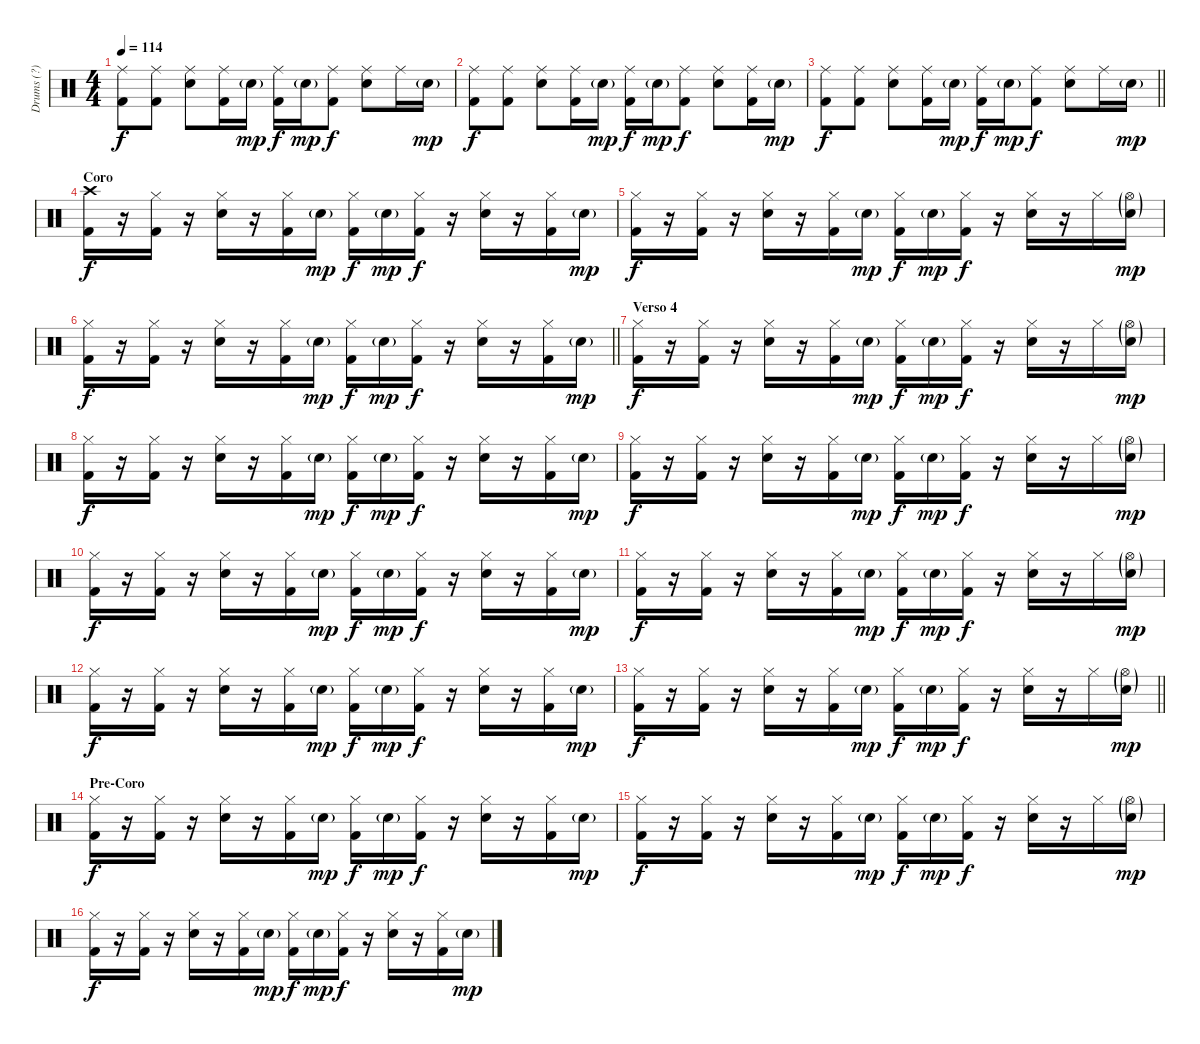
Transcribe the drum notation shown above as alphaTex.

\track ("Drums (?)" "Drums (?)") {instrument percussion}
\staff {score}
\articulation defaults
\ts (4 4)
\tempo 114
\clef neutral
\ks c
("Ride (middle)" "Kick (hit) 2").8{dy f} ("Ride (middle)" "Kick (hit) 2").8 ("Ride (middle)" "Snare (hit) 2").8 ("Ride (middle)" "Kick (hit) 2").16 "Snare (hit) 2"{g}.16{dy mp} ("Ride (middle)" "Kick (hit) 2").16{dy f} "Snare (hit) 2"{g}.16{dy mp} ("Ride (middle)" "Kick (hit) 2").8{dy f} ("Ride (middle)" "Snare (hit) 2").8 "Ride (middle)".16 "Snare (hit) 2"{g}.16{dy mp} |
("Ride (middle)" "Kick (hit) 2").8{dy f} ("Ride (middle)" "Kick (hit) 2").8 ("Ride (middle)" "Snare (hit) 2").8 ("Ride (middle)" "Kick (hit) 2").16 "Snare (hit) 2"{g}.16{dy mp} ("Ride (middle)" "Kick (hit) 2").16{dy f} "Snare (hit) 2"{g}.16{dy mp} ("Ride (middle)" "Kick (hit) 2").8{dy f} ("Ride (middle)" "Snare (hit) 2").8 ("Ride (middle)" "Kick (hit) 2").16 "Snare (hit) 2"{g}.16{dy mp} |
\barLineRight lightlight
("Ride (middle)" "Kick (hit) 2").8{dy f} ("Ride (middle)" "Kick (hit) 2").8 ("Ride (middle)" "Snare (hit) 2").8 ("Ride (middle)" "Kick (hit) 2").16 "Snare (hit) 2"{g}.16{dy mp} ("Ride (middle)" "Kick (hit) 2").16{dy f} "Snare (hit) 2"{g}.16{dy mp} ("Ride (middle)" "Kick (hit) 2").8{dy f} ("Ride (middle)" "Snare (hit) 2").8 "Ride (middle)".16 "Snare (hit) 2"{g}.16{dy mp} |
\section ("" "Coro")
("Crash high (hit)" "Kick (hit) 2").16{dy f} r.16 ("Hi-Hat (closed)" "Kick (hit) 2").16 r.16 ("Hi-Hat (closed)" "Snare (hit) 2").16 r.16 ("Hi-Hat (closed)" "Kick (hit) 2").16 "Snare (hit) 2"{g}.16{dy mp} ("Hi-Hat (closed)" "Kick (hit) 2").16{dy f} "Snare (hit) 2"{g}.16{dy mp} ("Hi-Hat (closed)" "Kick (hit) 2").16{dy f} r.16 ("Hi-Hat (closed)" "Snare (hit) 2").16 r.16 ("Hi-Hat (closed)" "Kick (hit) 2").16 "Snare (hit) 2"{g}.16{dy mp} |
("Hi-Hat (closed)" "Kick (hit) 2").16{dy f} r.16 ("Hi-Hat (closed)" "Kick (hit) 2").16 r.16 ("Hi-Hat (closed)" "Snare (hit) 2").16 r.16 ("Hi-Hat (closed)" "Kick (hit) 2").16 "Snare (hit) 2"{g}.16{dy mp} ("Hi-Hat (closed)" "Kick (hit) 2").16{dy f} "Snare (hit) 2"{g}.16{dy mp} ("Hi-Hat (closed)" "Kick (hit) 2").16{dy f} r.16 ("Hi-Hat (closed)" "Snare (hit) 2").16 r.16 "Hi-Hat (closed)".16 ("Hi-Hat (open)"{g} "Snare (hit) 2"{g}).16{dy mp} |
\barLineRight lightlight
("Hi-Hat (closed)" "Kick (hit) 2").16{dy f} r.16 ("Hi-Hat (closed)" "Kick (hit) 2").16 r.16 ("Hi-Hat (closed)" "Snare (hit) 2").16 r.16 ("Hi-Hat (closed)" "Kick (hit) 2").16 "Snare (hit) 2"{g}.16{dy mp} ("Hi-Hat (closed)" "Kick (hit) 2").16{dy f} "Snare (hit) 2"{g}.16{dy mp} ("Hi-Hat (closed)" "Kick (hit) 2").16{dy f} r.16 ("Hi-Hat (closed)" "Snare (hit) 2").16 r.16 ("Hi-Hat (closed)" "Kick (hit) 2").16 "Snare (hit) 2"{g}.16{dy mp} |
\section ("" "Verso 4")
("Hi-Hat (closed)" "Kick (hit) 2").16{dy f} r.16 ("Hi-Hat (closed)" "Kick (hit) 2").16 r.16 ("Hi-Hat (closed)" "Snare (hit) 2").16 r.16 ("Hi-Hat (closed)" "Kick (hit) 2").16 "Snare (hit) 2"{g}.16{dy mp} ("Hi-Hat (closed)" "Kick (hit) 2").16{dy f} "Snare (hit) 2"{g}.16{dy mp} ("Hi-Hat (closed)" "Kick (hit) 2").16{dy f} r.16 ("Hi-Hat (closed)" "Snare (hit) 2").16 r.16 "Hi-Hat (closed)".16 ("Hi-Hat (open)"{g} "Snare (hit) 2"{g}).16{dy mp} |
("Hi-Hat (closed)" "Kick (hit) 2").16{dy f} r.16 ("Hi-Hat (closed)" "Kick (hit) 2").16 r.16 ("Hi-Hat (closed)" "Snare (hit) 2").16 r.16 ("Hi-Hat (closed)" "Kick (hit) 2").16 "Snare (hit) 2"{g}.16{dy mp} ("Hi-Hat (closed)" "Kick (hit) 2").16{dy f} "Snare (hit) 2"{g}.16{dy mp} ("Hi-Hat (closed)" "Kick (hit) 2").16{dy f} r.16 ("Hi-Hat (closed)" "Snare (hit) 2").16 r.16 ("Hi-Hat (closed)" "Kick (hit) 2").16 "Snare (hit) 2"{g}.16{dy mp} |
("Hi-Hat (closed)" "Kick (hit) 2").16{dy f} r.16 ("Hi-Hat (closed)" "Kick (hit) 2").16 r.16 ("Hi-Hat (closed)" "Snare (hit) 2").16 r.16 ("Hi-Hat (closed)" "Kick (hit) 2").16 "Snare (hit) 2"{g}.16{dy mp} ("Hi-Hat (closed)" "Kick (hit) 2").16{dy f} "Snare (hit) 2"{g}.16{dy mp} ("Hi-Hat (closed)" "Kick (hit) 2").16{dy f} r.16 ("Hi-Hat (closed)" "Snare (hit) 2").16 r.16 "Hi-Hat (closed)".16 ("Hi-Hat (open)"{g} "Snare (hit) 2"{g}).16{dy mp} |
("Hi-Hat (closed)" "Kick (hit) 2").16{dy f} r.16 ("Hi-Hat (closed)" "Kick (hit) 2").16 r.16 ("Hi-Hat (closed)" "Snare (hit) 2").16 r.16 ("Hi-Hat (closed)" "Kick (hit) 2").16 "Snare (hit) 2"{g}.16{dy mp} ("Hi-Hat (closed)" "Kick (hit) 2").16{dy f} "Snare (hit) 2"{g}.16{dy mp} ("Hi-Hat (closed)" "Kick (hit) 2").16{dy f} r.16 ("Hi-Hat (closed)" "Snare (hit) 2").16 r.16 ("Hi-Hat (closed)" "Kick (hit) 2").16 "Snare (hit) 2"{g}.16{dy mp} |
("Hi-Hat (closed)" "Kick (hit) 2").16{dy f} r.16 ("Hi-Hat (closed)" "Kick (hit) 2").16 r.16 ("Hi-Hat (closed)" "Snare (hit) 2").16 r.16 ("Hi-Hat (closed)" "Kick (hit) 2").16 "Snare (hit) 2"{g}.16{dy mp} ("Hi-Hat (closed)" "Kick (hit) 2").16{dy f} "Snare (hit) 2"{g}.16{dy mp} ("Hi-Hat (closed)" "Kick (hit) 2").16{dy f} r.16 ("Hi-Hat (closed)" "Snare (hit) 2").16 r.16 "Hi-Hat (closed)".16 ("Hi-Hat (open)"{g} "Snare (hit) 2"{g}).16{dy mp} |
("Hi-Hat (closed)" "Kick (hit) 2").16{dy f} r.16 ("Hi-Hat (closed)" "Kick (hit) 2").16 r.16 ("Hi-Hat (closed)" "Snare (hit) 2").16 r.16 ("Hi-Hat (closed)" "Kick (hit) 2").16 "Snare (hit) 2"{g}.16{dy mp} ("Hi-Hat (closed)" "Kick (hit) 2").16{dy f} "Snare (hit) 2"{g}.16{dy mp} ("Hi-Hat (closed)" "Kick (hit) 2").16{dy f} r.16 ("Hi-Hat (closed)" "Snare (hit) 2").16 r.16 ("Hi-Hat (closed)" "Kick (hit) 2").16 "Snare (hit) 2"{g}.16{dy mp} |
\barLineRight lightlight
("Hi-Hat (closed)" "Kick (hit) 2").16{dy f} r.16 ("Hi-Hat (closed)" "Kick (hit) 2").16 r.16 ("Hi-Hat (closed)" "Snare (hit) 2").16 r.16 ("Hi-Hat (closed)" "Kick (hit) 2").16 "Snare (hit) 2"{g}.16{dy mp} ("Hi-Hat (closed)" "Kick (hit) 2").16{dy f} "Snare (hit) 2"{g}.16{dy mp} ("Hi-Hat (closed)" "Kick (hit) 2").16{dy f} r.16 ("Hi-Hat (closed)" "Snare (hit) 2").16 r.16 "Hi-Hat (closed)".16 ("Hi-Hat (open)"{g} "Snare (hit) 2"{g}).16{dy mp} |
\section ("" "Pre-Coro")
("Hi-Hat (closed)" "Kick (hit) 2").16{dy f} r.16 ("Hi-Hat (closed)" "Kick (hit) 2").16 r.16 ("Hi-Hat (closed)" "Snare (hit) 2").16 r.16 ("Hi-Hat (closed)" "Kick (hit) 2").16 "Snare (hit) 2"{g}.16{dy mp} ("Hi-Hat (closed)" "Kick (hit) 2").16{dy f} "Snare (hit) 2"{g}.16{dy mp} ("Hi-Hat (closed)" "Kick (hit) 2").16{dy f} r.16 ("Hi-Hat (closed)" "Snare (hit) 2").16 r.16 ("Hi-Hat (closed)" "Kick (hit) 2").16 "Snare (hit) 2"{g}.16{dy mp} |
("Hi-Hat (closed)" "Kick (hit) 2").16{dy f} r.16 ("Hi-Hat (closed)" "Kick (hit) 2").16 r.16 ("Hi-Hat (closed)" "Snare (hit) 2").16 r.16 ("Hi-Hat (closed)" "Kick (hit) 2").16 "Snare (hit) 2"{g}.16{dy mp} ("Hi-Hat (closed)" "Kick (hit) 2").16{dy f} "Snare (hit) 2"{g}.16{dy mp} ("Hi-Hat (closed)" "Kick (hit) 2").16{dy f} r.16 ("Hi-Hat (closed)" "Snare (hit) 2").16 r.16 "Hi-Hat (closed)".16 ("Hi-Hat (open)"{g} "Snare (hit) 2"{g}).16{dy mp} |
("Hi-Hat (closed)" "Kick (hit) 2").16{dy f} r.16 ("Hi-Hat (closed)" "Kick (hit) 2").16 r.16 ("Hi-Hat (closed)" "Snare (hit) 2").16 r.16 ("Hi-Hat (closed)" "Kick (hit) 2").16 "Snare (hit) 2"{g}.16{dy mp} ("Hi-Hat (closed)" "Kick (hit) 2").16{dy f} "Snare (hit) 2"{g}.16{dy mp} ("Hi-Hat (closed)" "Kick (hit) 2").16{dy f} r.16 ("Hi-Hat (closed)" "Snare (hit) 2").16 r.16 ("Hi-Hat (closed)" "Kick (hit) 2").16 "Snare (hit) 2"{g}.16{dy mp}
